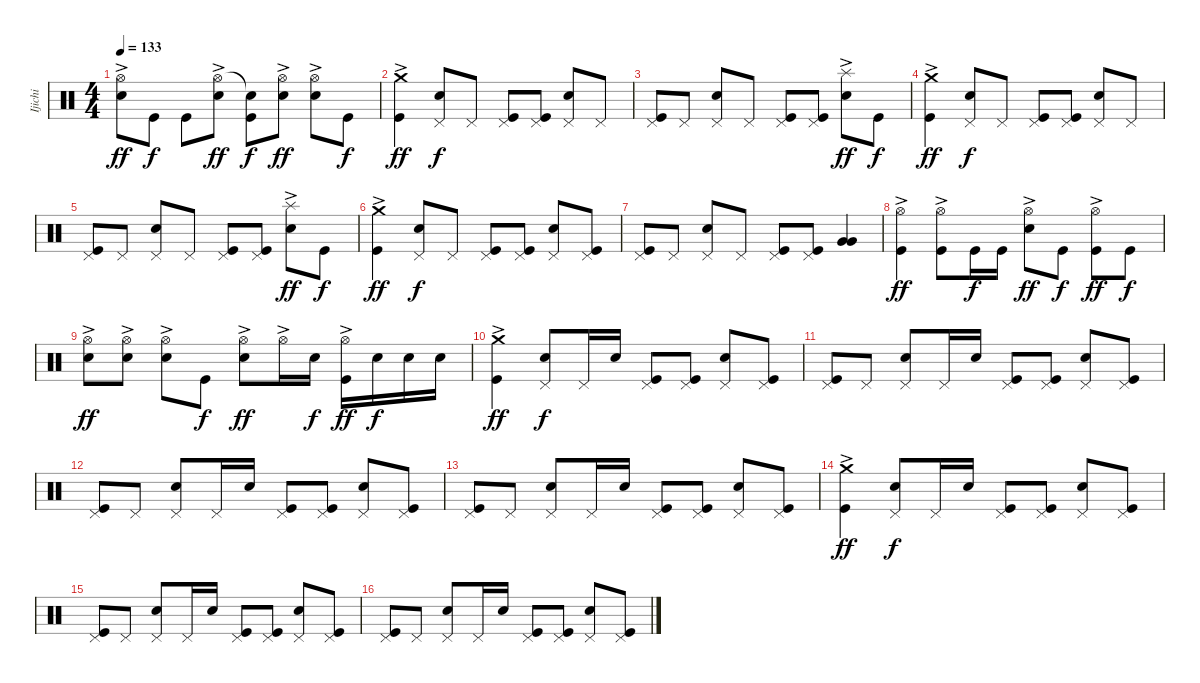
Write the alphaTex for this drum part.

\track ("Ijichi" "Ijichi") {instrument percussion}
\staff {score}
\articulation defaults
\ts (4 4)
\tempo 133
\clef neutral
\ks c
("Hi-Hat (open)"{ac} "Electric Snare (hit)").8{dy ff} "Kick (hit)".8{dy f} "Kick (hit)".8 ("Hi-Hat (open)"{ac} "Electric Snare (hit)").8{dy ff} ("Snare (hit)"{t} "Kick (hit)").8{dy f} ("Hi-Hat (open)"{ac} "Electric Snare (hit)").8{dy ff} ("Hi-Hat (open)"{ac} "Electric Snare (hit)").8 "Kick (hit)".8{dy f} |
("Crash medium (hit)"{ac} "Kick (hit)").4{dy ff} ("Pedal Hi-Hat (hit)" "Electric Snare (hit)").8{dy f} "Pedal Hi-Hat (hit)".8 ("Pedal Hi-Hat (hit)" "Kick (hit)").8 ("Pedal Hi-Hat (hit)" "Kick (hit)").8 ("Pedal Hi-Hat (hit)" "Electric Snare (hit)").8 "Pedal Hi-Hat (hit)".8 |
("Pedal Hi-Hat (hit)" "Kick (hit)").8 "Pedal Hi-Hat (hit)".8 ("Pedal Hi-Hat (hit)" "Electric Snare (hit)").8 "Pedal Hi-Hat (hit)".8 ("Pedal Hi-Hat (hit)" "Kick (hit)").8 ("Pedal Hi-Hat (hit)" "Kick (hit)").8 ("Splash (hit)"{ac} "Electric Snare (hit)").8{dy ff} "Kick (hit)".8{dy f} |
("Crash medium (hit)"{ac} "Kick (hit)").4{dy ff} ("Pedal Hi-Hat (hit)" "Electric Snare (hit)").8{dy f} "Pedal Hi-Hat (hit)".8 ("Pedal Hi-Hat (hit)" "Kick (hit)").8 ("Pedal Hi-Hat (hit)" "Kick (hit)").8 ("Pedal Hi-Hat (hit)" "Electric Snare (hit)").8 "Pedal Hi-Hat (hit)".8 |
("Pedal Hi-Hat (hit)" "Kick (hit)").8 "Pedal Hi-Hat (hit)".8 ("Pedal Hi-Hat (hit)" "Electric Snare (hit)").8 "Pedal Hi-Hat (hit)".8 ("Pedal Hi-Hat (hit)" "Kick (hit)").8 ("Pedal Hi-Hat (hit)" "Kick (hit)").8 ("Splash (hit)"{ac} "Electric Snare (hit)").8{dy ff} "Kick (hit)".8{dy f} |
("Crash medium (hit)"{ac} "Kick (hit)").4{dy ff} ("Pedal Hi-Hat (hit)" "Electric Snare (hit)").8{dy f} "Pedal Hi-Hat (hit)".8 ("Pedal Hi-Hat (hit)" "Kick (hit)").8 ("Pedal Hi-Hat (hit)" "Kick (hit)").8 ("Pedal Hi-Hat (hit)" "Electric Snare (hit)").8 ("Pedal Hi-Hat (hit)" "Kick (hit)").8 |
("Pedal Hi-Hat (hit)" "Kick (hit)").8 "Pedal Hi-Hat (hit)".8 ("Pedal Hi-Hat (hit)" "Electric Snare (hit)").8 "Pedal Hi-Hat (hit)".8 ("Pedal Hi-Hat (hit)" "Kick (hit)").8 ("Pedal Hi-Hat (hit)" "Kick (hit)").8 ("Very Low Tom (hit)" "Very Low Tom (hit)").4 |
("Hi-Hat (open)"{ac} "Kick (hit)").4{dy ff} ("Hi-Hat (open)"{ac} "Kick (hit)").8 "Kick (hit)".16{dy f} "Kick (hit)".16 ("Hi-Hat (open)"{ac} "Electric Snare (hit)").8{dy ff} "Kick (hit)".8{dy f} ("Hi-Hat (open)"{ac} "Kick (hit)").8{dy ff} "Kick (hit)".8{dy f} |
("Hi-Hat (open)"{ac} "Electric Snare (hit)").8{dy ff} ("Hi-Hat (open)"{ac} "Electric Snare (hit)").8 ("Hi-Hat (open)"{ac} "Electric Snare (hit)").8 "Kick (hit)".8{dy f} ("Hi-Hat (open)"{ac} "Electric Snare (hit)").8{dy ff} "Hi-Hat (open)"{ac}.16 "Electric Snare (hit)".16{dy f} ("Hi-Hat (open)"{ac} "Kick (hit)").16{dy ff} "Electric Snare (hit)".16{dy f} "Electric Snare (hit)".16 "Electric Snare (hit)".16 |
("Crash medium (hit)"{ac} "Kick (hit)").4{dy ff} ("Pedal Hi-Hat (hit)" "Electric Snare (hit)").8{dy f} "Pedal Hi-Hat (hit)".16 "Electric Snare (hit)".16 ("Pedal Hi-Hat (hit)" "Kick (hit)").8 ("Pedal Hi-Hat (hit)" "Kick (hit)").8 ("Pedal Hi-Hat (hit)" "Electric Snare (hit)").8 ("Pedal Hi-Hat (hit)" "Kick (hit)").8 |
("Pedal Hi-Hat (hit)" "Kick (hit)").8 "Pedal Hi-Hat (hit)".8 ("Pedal Hi-Hat (hit)" "Electric Snare (hit)").8 "Pedal Hi-Hat (hit)".16 "Electric Snare (hit)".16 ("Pedal Hi-Hat (hit)" "Kick (hit)").8 ("Pedal Hi-Hat (hit)" "Kick (hit)").8 ("Pedal Hi-Hat (hit)" "Electric Snare (hit)").8 ("Pedal Hi-Hat (hit)" "Kick (hit)").8 |
("Pedal Hi-Hat (hit)" "Kick (hit)").8 "Pedal Hi-Hat (hit)".8 ("Pedal Hi-Hat (hit)" "Electric Snare (hit)").8 "Pedal Hi-Hat (hit)".16 "Electric Snare (hit)".16 ("Pedal Hi-Hat (hit)" "Kick (hit)").8 ("Pedal Hi-Hat (hit)" "Kick (hit)").8 ("Pedal Hi-Hat (hit)" "Electric Snare (hit)").8 ("Pedal Hi-Hat (hit)" "Kick (hit)").8 |
("Pedal Hi-Hat (hit)" "Kick (hit)").8 "Pedal Hi-Hat (hit)".8 ("Pedal Hi-Hat (hit)" "Electric Snare (hit)").8 "Pedal Hi-Hat (hit)".16 "Electric Snare (hit)".16 ("Pedal Hi-Hat (hit)" "Kick (hit)").8 ("Pedal Hi-Hat (hit)" "Kick (hit)").8 ("Pedal Hi-Hat (hit)" "Electric Snare (hit)").8 ("Pedal Hi-Hat (hit)" "Kick (hit)").8 |
("Crash medium (hit)"{ac} "Kick (hit)").4{dy ff} ("Pedal Hi-Hat (hit)" "Electric Snare (hit)").8{dy f} "Pedal Hi-Hat (hit)".16 "Electric Snare (hit)".16 ("Pedal Hi-Hat (hit)" "Kick (hit)").8 ("Pedal Hi-Hat (hit)" "Kick (hit)").8 ("Pedal Hi-Hat (hit)" "Electric Snare (hit)").8 ("Pedal Hi-Hat (hit)" "Kick (hit)").8 |
("Pedal Hi-Hat (hit)" "Kick (hit)").8 "Pedal Hi-Hat (hit)".8 ("Pedal Hi-Hat (hit)" "Electric Snare (hit)").8 "Pedal Hi-Hat (hit)".16 "Electric Snare (hit)".16 ("Pedal Hi-Hat (hit)" "Kick (hit)").8 ("Pedal Hi-Hat (hit)" "Kick (hit)").8 ("Pedal Hi-Hat (hit)" "Electric Snare (hit)").8 ("Pedal Hi-Hat (hit)" "Kick (hit)").8 |
("Pedal Hi-Hat (hit)" "Kick (hit)").8 "Pedal Hi-Hat (hit)".8 ("Pedal Hi-Hat (hit)" "Electric Snare (hit)").8 "Pedal Hi-Hat (hit)".16 "Electric Snare (hit)".16 ("Pedal Hi-Hat (hit)" "Kick (hit)").8 ("Pedal Hi-Hat (hit)" "Kick (hit)").8 ("Pedal Hi-Hat (hit)" "Electric Snare (hit)").8 ("Pedal Hi-Hat (hit)" "Kick (hit)").8
